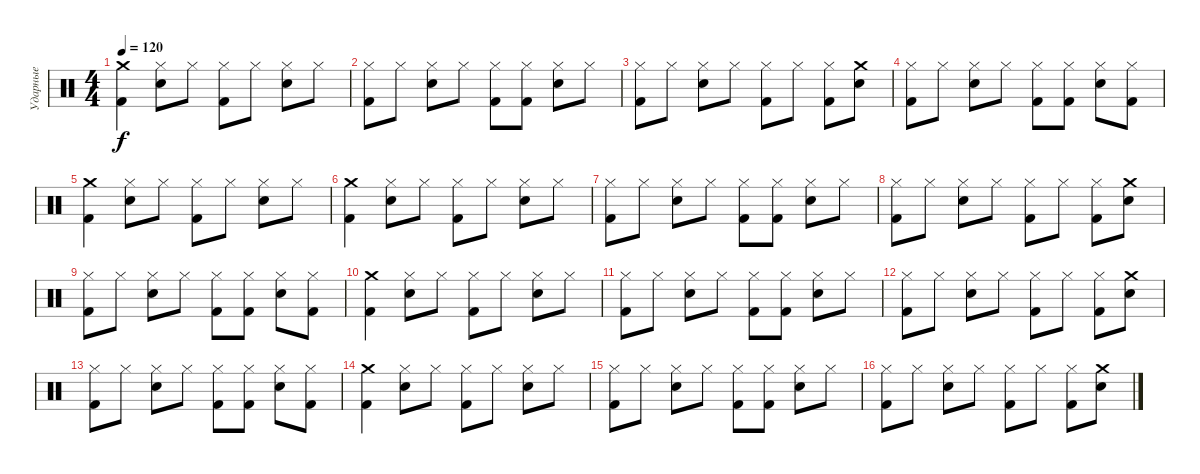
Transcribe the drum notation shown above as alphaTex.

\track ("Ударные" "Ударные") {instrument percussion}
\staff {score}
\articulation defaults
\ts (4 4)
\tempo 120
\clef neutral
\ks c
("Kick (hit) 2" "Crash medium (hit)").4{dy f} ("Snare (hit) 2" "Hi-Hat (closed)").8 "Hi-Hat (closed)".8 ("Hi-Hat (closed)" "Kick (hit) 2").8 "Hi-Hat (closed)".8 ("Snare (hit) 2" "Hi-Hat (closed)").8 "Hi-Hat (closed)".8 |
("Hi-Hat (closed)" "Kick (hit) 2").8 "Hi-Hat (closed)".8 ("Snare (hit) 2" "Hi-Hat (closed)").8 "Hi-Hat (closed)".8 ("Kick (hit) 2" "Hi-Hat (closed)").8 ("Kick (hit) 2" "Hi-Hat (closed)").8 ("Snare (hit) 2" "Hi-Hat (closed)").8 "Hi-Hat (closed)".8 |
("Hi-Hat (closed)" "Kick (hit) 2").8 "Hi-Hat (closed)".8 ("Snare (hit) 2" "Hi-Hat (closed)").8 "Hi-Hat (closed)".8 ("Hi-Hat (closed)" "Kick (hit) 2").8 "Hi-Hat (closed)".8 ("Hi-Hat (closed)" "Kick (hit) 2").8 ("Crash medium (hit)" "Snare (hit) 2").8 |
("Hi-Hat (closed)" "Kick (hit) 2").8 "Hi-Hat (closed)".8 ("Snare (hit) 2" "Hi-Hat (closed)").8 "Hi-Hat (closed)".8 ("Kick (hit) 2" "Hi-Hat (closed)").8 ("Kick (hit) 2" "Hi-Hat (closed)").8 ("Snare (hit) 2" "Hi-Hat (closed)").8 ("Kick (hit) 2" "Hi-Hat (closed)").8 |
("Kick (hit) 2" "Crash medium (hit)").4 ("Snare (hit) 2" "Hi-Hat (closed)").8 "Hi-Hat (closed)".8 ("Hi-Hat (closed)" "Kick (hit) 2").8 "Hi-Hat (closed)".8 ("Snare (hit) 2" "Hi-Hat (closed)").8 "Hi-Hat (closed)".8 |
("Kick (hit) 2" "Crash medium (hit)").4 ("Snare (hit) 2" "Hi-Hat (closed)").8 "Hi-Hat (closed)".8 ("Hi-Hat (closed)" "Kick (hit) 2").8 "Hi-Hat (closed)".8 ("Snare (hit) 2" "Hi-Hat (closed)").8 "Hi-Hat (closed)".8 |
("Hi-Hat (closed)" "Kick (hit) 2").8 "Hi-Hat (closed)".8 ("Snare (hit) 2" "Hi-Hat (closed)").8 "Hi-Hat (closed)".8 ("Kick (hit) 2" "Hi-Hat (closed)").8 ("Kick (hit) 2" "Hi-Hat (closed)").8 ("Snare (hit) 2" "Hi-Hat (closed)").8 "Hi-Hat (closed)".8 |
("Hi-Hat (closed)" "Kick (hit) 2").8 "Hi-Hat (closed)".8 ("Snare (hit) 2" "Hi-Hat (closed)").8 "Hi-Hat (closed)".8 ("Hi-Hat (closed)" "Kick (hit) 2").8 "Hi-Hat (closed)".8 ("Hi-Hat (closed)" "Kick (hit) 2").8 ("Crash medium (hit)" "Snare (hit) 2").8 |
("Hi-Hat (closed)" "Kick (hit) 2").8 "Hi-Hat (closed)".8 ("Snare (hit) 2" "Hi-Hat (closed)").8 "Hi-Hat (closed)".8 ("Kick (hit) 2" "Hi-Hat (closed)").8 ("Kick (hit) 2" "Hi-Hat (closed)").8 ("Snare (hit) 2" "Hi-Hat (closed)").8 ("Kick (hit) 2" "Hi-Hat (closed)").8 |
("Kick (hit) 2" "Crash medium (hit)").4 ("Snare (hit) 2" "Hi-Hat (closed)").8 "Hi-Hat (closed)".8 ("Hi-Hat (closed)" "Kick (hit) 2").8 "Hi-Hat (closed)".8 ("Snare (hit) 2" "Hi-Hat (closed)").8 "Hi-Hat (closed)".8 |
("Hi-Hat (closed)" "Kick (hit) 2").8 "Hi-Hat (closed)".8 ("Snare (hit) 2" "Hi-Hat (closed)").8 "Hi-Hat (closed)".8 ("Kick (hit) 2" "Hi-Hat (closed)").8 ("Kick (hit) 2" "Hi-Hat (closed)").8 ("Snare (hit) 2" "Hi-Hat (closed)").8 "Hi-Hat (closed)".8 |
("Hi-Hat (closed)" "Kick (hit) 2").8 "Hi-Hat (closed)".8 ("Snare (hit) 2" "Hi-Hat (closed)").8 "Hi-Hat (closed)".8 ("Hi-Hat (closed)" "Kick (hit) 2").8 "Hi-Hat (closed)".8 ("Hi-Hat (closed)" "Kick (hit) 2").8 ("Crash medium (hit)" "Snare (hit) 2").8 |
("Hi-Hat (closed)" "Kick (hit) 2").8 "Hi-Hat (closed)".8 ("Snare (hit) 2" "Hi-Hat (closed)").8 "Hi-Hat (closed)".8 ("Kick (hit) 2" "Hi-Hat (closed)").8 ("Kick (hit) 2" "Hi-Hat (closed)").8 ("Snare (hit) 2" "Hi-Hat (closed)").8 ("Kick (hit) 2" "Hi-Hat (closed)").8 |
("Kick (hit) 2" "Crash medium (hit)").4 ("Snare (hit) 2" "Hi-Hat (closed)").8 "Hi-Hat (closed)".8 ("Hi-Hat (closed)" "Kick (hit) 2").8 "Hi-Hat (closed)".8 ("Snare (hit) 2" "Hi-Hat (closed)").8 "Hi-Hat (closed)".8 |
("Hi-Hat (closed)" "Kick (hit) 2").8 "Hi-Hat (closed)".8 ("Snare (hit) 2" "Hi-Hat (closed)").8 "Hi-Hat (closed)".8 ("Kick (hit) 2" "Hi-Hat (closed)").8 ("Kick (hit) 2" "Hi-Hat (closed)").8 ("Snare (hit) 2" "Hi-Hat (closed)").8 "Hi-Hat (closed)".8 |
("Hi-Hat (closed)" "Kick (hit) 2").8 "Hi-Hat (closed)".8 ("Snare (hit) 2" "Hi-Hat (closed)").8 "Hi-Hat (closed)".8 ("Hi-Hat (closed)" "Kick (hit) 2").8 "Hi-Hat (closed)".8 ("Hi-Hat (closed)" "Kick (hit) 2").8 ("Crash medium (hit)" "Snare (hit) 2").8
